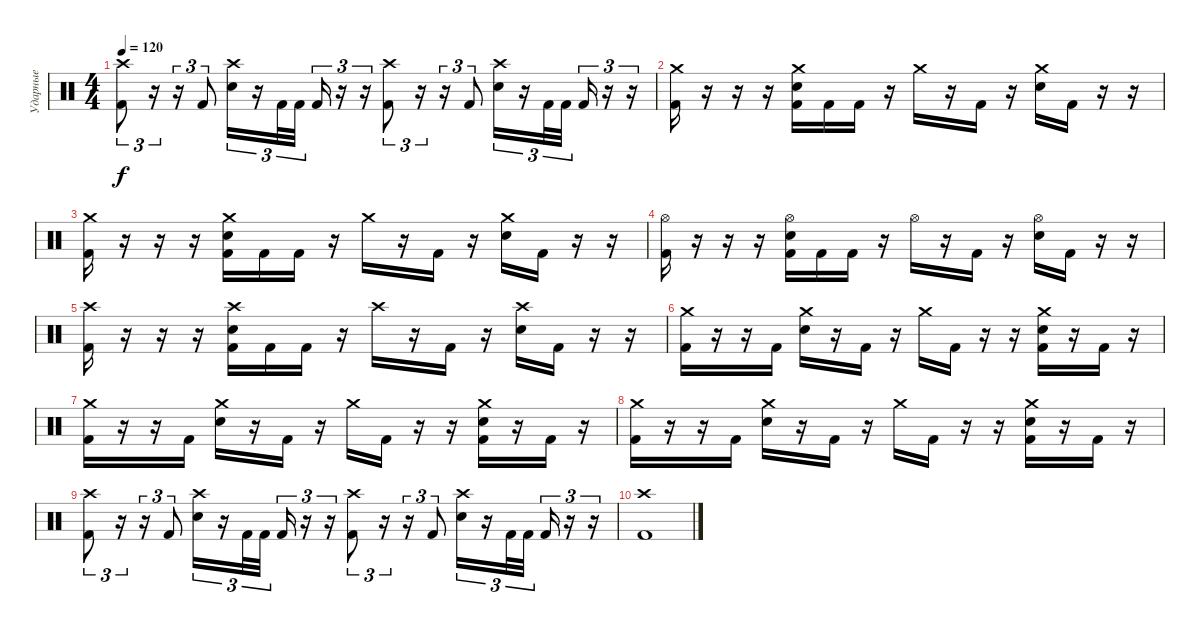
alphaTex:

\track ("Ударные" "Ударные") {instrument percussion}
\staff {score}
\articulation defaults
\ts (4 4)
\tempo 120
\clef neutral
\ks c
("Crash high (hit)" "Kick (hit) 2").8{tu (3 2) dy f} r.16{tu (3 2)} r.16{tu (3 2)} "Kick (hit) 2".8{tu (3 2)} ("Crash high (hit)" "Electric Snare (hit)").16{tu (3 2)} r.16{tu (3 2)} "Kick (hit) 2".32{tu (3 2)} "Kick (hit) 2".32{tu (3 2) beam splitsecondary} "Kick (hit) 2".16{tu (3 2)} r.16{tu (3 2)} r.16{tu (3 2)} ("Crash high (hit)" "Kick (hit) 2").8{tu (3 2)} r.16{tu (3 2)} r.16{tu (3 2)} "Kick (hit) 2".8{tu (3 2)} ("Crash high (hit)" "Electric Snare (hit)").16{tu (3 2)} r.16{tu (3 2)} "Kick (hit) 2".32{tu (3 2)} "Kick (hit) 2".32{tu (3 2) beam splitsecondary} "Kick (hit) 2".16{tu (3 2)} r.16{tu (3 2)} r.16{tu (3 2)} |
("Crash medium (hit)" "Kick (hit) 2").16 r.16 r.16 r.16 ("Crash medium (hit)" "Electric Snare (hit)" "Kick (hit) 2").16 "Kick (hit) 2".16 "Kick (hit) 2".16 r.16 "Crash medium (hit)".16 r.16 "Kick (hit) 2".16 r.16 ("Crash medium (hit)" "Electric Snare (hit)").16 "Kick (hit) 2".16 r.16 r.16 |
("Crash medium (hit)" "Kick (hit) 2").16 r.16 r.16 r.16 ("Crash medium (hit)" "Electric Snare (hit)" "Kick (hit) 2").16 "Kick (hit) 2".16 "Kick (hit) 2".16 r.16 "Crash medium (hit)".16 r.16 "Kick (hit) 2".16 r.16 ("Crash medium (hit)" "Electric Snare (hit)").16 "Kick (hit) 2".16 r.16 r.16 |
("Hi-Hat (open)" "Kick (hit) 2").16 r.16 r.16 r.16 ("Hi-Hat (open)" "Electric Snare (hit)" "Kick (hit) 2").16 "Kick (hit) 2".16 "Kick (hit) 2".16 r.16 "Hi-Hat (open)".16 r.16 "Kick (hit) 2".16 r.16 ("Hi-Hat (open)" "Electric Snare (hit)").16 "Kick (hit) 2".16 r.16 r.16 |
("Crash high (hit)" "Kick (hit) 2").16 r.16 r.16 r.16 ("Crash high (hit)" "Electric Snare (hit)" "Kick (hit) 2").16 "Kick (hit) 2".16 "Kick (hit) 2".16 r.16 "Crash high (hit)".16 r.16 "Kick (hit) 2".16 r.16 ("Crash high (hit)" "Electric Snare (hit)").16 "Kick (hit) 2".16 r.16 r.16 |
("Crash medium (hit)" "Kick (hit) 2").16 r.16 r.16 "Kick (hit) 2".16 ("Crash medium (hit)" "Electric Snare (hit)").16 r.16 "Kick (hit) 2".16 r.16 "Crash medium (hit)".16 "Kick (hit) 2".16 r.16 r.16 ("Crash medium (hit)" "Electric Snare (hit)" "Kick (hit) 2").16 r.16 "Kick (hit) 2".16 r.16 |
("Crash medium (hit)" "Kick (hit) 2").16 r.16 r.16 "Kick (hit) 2".16 ("Crash medium (hit)" "Electric Snare (hit)").16 r.16 "Kick (hit) 2".16 r.16 "Crash medium (hit)".16 "Kick (hit) 2".16 r.16 r.16 ("Crash medium (hit)" "Electric Snare (hit)" "Kick (hit) 2").16 r.16 "Kick (hit) 2".16 r.16 |
("Crash medium (hit)" "Kick (hit) 2").16 r.16 r.16 "Kick (hit) 2".16 ("Crash medium (hit)" "Electric Snare (hit)").16 r.16 "Kick (hit) 2".16 r.16 "Crash medium (hit)".16 "Kick (hit) 2".16 r.16 r.16 ("Crash medium (hit)" "Electric Snare (hit)" "Kick (hit) 2").16 r.16 "Kick (hit) 2".16 r.16 |
("Crash high (hit)" "Kick (hit) 2").8{tu (3 2)} r.16{tu (3 2)} r.16{tu (3 2)} "Kick (hit) 2".8{tu (3 2)} ("Crash high (hit)" "Electric Snare (hit)").16{tu (3 2)} r.16{tu (3 2)} "Kick (hit) 2".32{tu (3 2)} "Kick (hit) 2".32{tu (3 2) beam splitsecondary} "Kick (hit) 2".16{tu (3 2)} r.16{tu (3 2)} r.16{tu (3 2)} ("Crash high (hit)" "Kick (hit) 2").8{tu (3 2)} r.16{tu (3 2)} r.16{tu (3 2)} "Kick (hit) 2".8{tu (3 2)} ("Crash high (hit)" "Electric Snare (hit)").16{tu (3 2)} r.16{tu (3 2)} "Kick (hit) 2".32{tu (3 2)} "Kick (hit) 2".32{tu (3 2) beam splitsecondary} "Kick (hit) 2".16{tu (3 2)} r.16{tu (3 2)} r.16{tu (3 2)} |
("Crash high (hit)" "Kick (hit) 2").1
